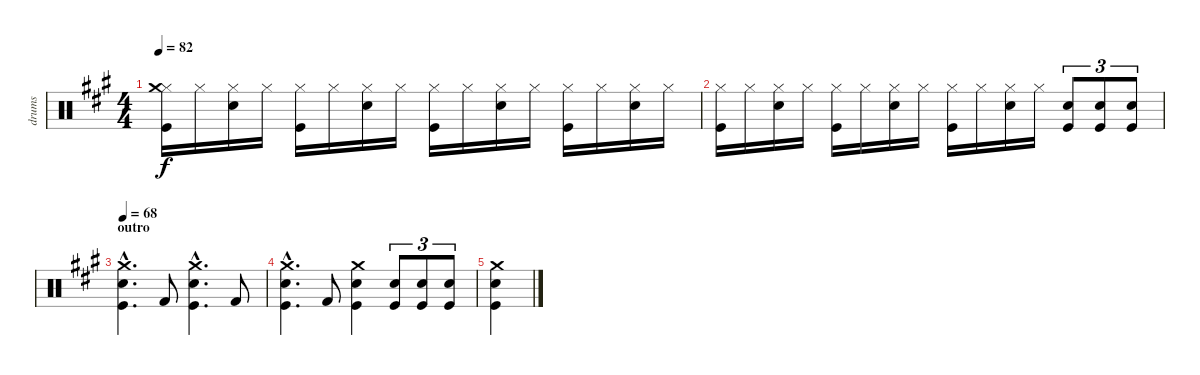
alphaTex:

\track ("drums" "drums") {instrument percussion}
\staff {score}
\articulation defaults
\ts (4 4)
\tempo 82
\clef neutral
\ks a
("Hi-Hat (closed)" "Crash medium (hit)" "Kick (hit)").16{dy f} "Hi-Hat (closed)".16 ("Hi-Hat (closed)" "Snare (hit) 2").16 "Hi-Hat (closed)".16 ("Hi-Hat (closed)" "Kick (hit)").16 "Hi-Hat (closed)".16 ("Hi-Hat (closed)" "Snare (hit) 2").16 "Hi-Hat (closed)".16 ("Hi-Hat (closed)" "Kick (hit)").16 "Hi-Hat (closed)".16 ("Hi-Hat (closed)" "Snare (hit) 2").16 "Hi-Hat (closed)".16 ("Hi-Hat (closed)" "Kick (hit)").16 "Hi-Hat (closed)".16 ("Hi-Hat (closed)" "Snare (hit) 2").16 "Hi-Hat (closed)".16 |
("Hi-Hat (closed)" "Kick (hit)").16 "Hi-Hat (closed)".16 ("Hi-Hat (closed)" "Snare (hit) 2").16 "Hi-Hat (closed)".16 ("Hi-Hat (closed)" "Kick (hit)").16 "Hi-Hat (closed)".16 ("Hi-Hat (closed)" "Snare (hit) 2").16 "Hi-Hat (closed)".16 ("Hi-Hat (closed)" "Kick (hit)").16 "Hi-Hat (closed)".16 ("Hi-Hat (closed)" "Snare (hit) 2").16 "Hi-Hat (closed)".16 ("Snare (hit) 2" "Kick (hit)").8{tu (3 2)} ("Snare (hit) 2" "Kick (hit)").8{tu (3 2)} ("Snare (hit) 2" "Kick (hit)").8{tu (3 2)} |
\section ("" "outro")
\tempo 68
("Crash medium (hit)"{hac} "Snare (hit) 2"{hac} "Kick (hit)"{hac}).4{d} "Kick (hit) 2".8 ("Crash medium (hit)"{hac} "Snare (hit) 2"{hac} "Kick (hit)"{hac}).4{d} "Kick (hit) 2".8 |
("Crash medium (hit)"{hac} "Snare (hit) 2"{hac} "Kick (hit)"{hac}).4{d} "Kick (hit) 2".8 ("Crash medium (hit)" "Snare (hit) 2" "Kick (hit)").4 ("Snare (hit) 2" "Kick (hit)").8{tu (3 2)} ("Snare (hit) 2" "Kick (hit)").8{tu (3 2)} ("Snare (hit) 2" "Kick (hit)").8{tu (3 2)} |
("Crash medium (hit)" "Snare (hit) 2" "Kick (hit)").4
